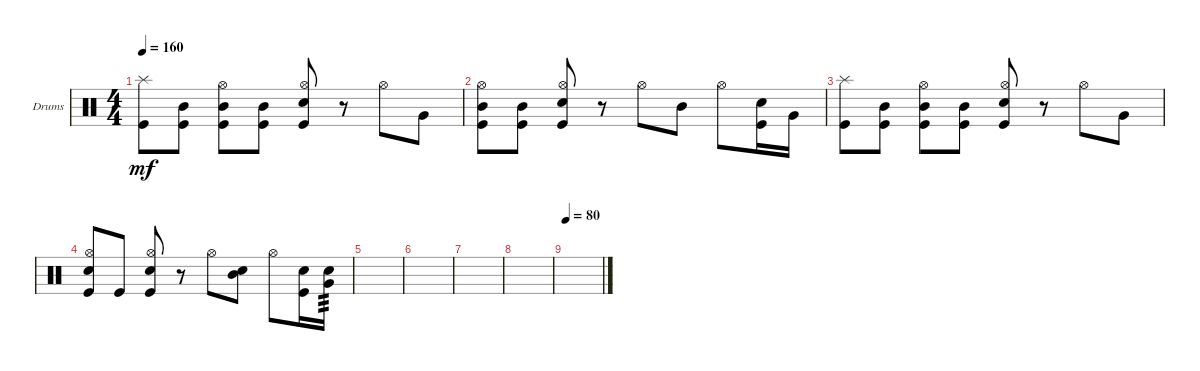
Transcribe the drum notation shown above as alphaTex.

\defaultSystemsLayout 4
\bracketExtendMode groupsimilarinstruments
\firstSystemTrackNameOrientation horizontal
\otherSystemsTrackNameOrientation horizontal
\track ("Drumkit" "Drums") {instrument percussion}
\staff {score}
\articulation defaults
\ts (4 4)
\tempo 160
\clef neutral
\ks c
("Splash (hit)" "Kick (hit)").8{dy mf} ("Kick (hit)" "Mid Tom (hit)").8 ("Kick (hit)" "Mid Tom (hit)" "Hi-Hat (open)").8 ("Kick (hit)" "Mid Tom (hit)").8 ("Kick (hit)" "Snare (hit) 2" "Hi-Hat (open)").8 r.8 "Hi-Hat (open)".8 "Very Low Tom (hit)".8 |
("Kick (hit)" "Mid Tom (hit)" "Hi-Hat (open)").8 ("Kick (hit)" "Mid Tom (hit)").8 ("Kick (hit)" "Snare (hit) 2" "Hi-Hat (open)").8 r.8 "Hi-Hat (open)".8 "Mid Tom (hit)".8 "Hi-Hat (open)".8 ("Kick (hit)" "Snare (hit) 2").16 "Very Low Tom (hit)".16 |
("Splash (hit)" "Kick (hit)").8 ("Kick (hit)" "Mid Tom (hit)").8 ("Kick (hit)" "Mid Tom (hit)" "Hi-Hat (open)").8 ("Kick (hit)" "Mid Tom (hit)").8 ("Kick (hit)" "Snare (hit) 2" "Hi-Hat (open)").8 r.8 "Hi-Hat (open)".8 "Very Low Tom (hit)".8 |
("Kick (hit)" "Hi-Hat (open)" "Snare (hit) 2").8 "Kick (hit)".8 ("Kick (hit)" "Snare (hit) 2" "Hi-Hat (open)").8 r.8 "Hi-Hat (open)".8 ("Mid Tom (hit)" "Snare (hit) 2").8 "Hi-Hat (open)".8 ("Kick (hit)" "Snare (hit) 2").16 ("Very Low Tom (hit)" "Snare (hit) 2").16{tp 3} |
|
|
|
|
\tempo 80
